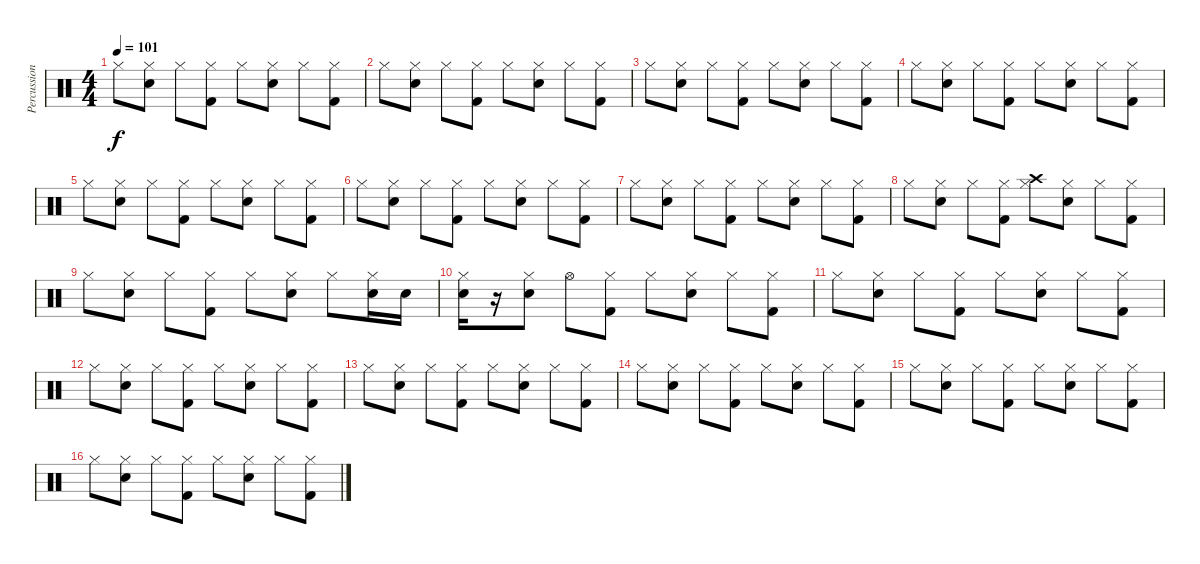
\track ("Percussions" "Percussion") {instrument percussion}
\staff {score}
\articulation defaults
\ts (4 4)
\tempo 101
\clef neutral
\ks c "Hi-Hat (closed)".8{dy f}
("Hi-Hat (closed)" "Electric Snare (hit)").8 "Hi-Hat (closed)".8 ("Hi-Hat (closed)" "Kick (hit) 2").8 "Hi-Hat (closed)".8 ("Hi-Hat (closed)" "Electric Snare (hit)").8 "Hi-Hat (closed)".8 ("Hi-Hat (closed)" "Kick (hit) 2").8 |
"Hi-Hat (closed)".8 ("Hi-Hat (closed)" "Electric Snare (hit)").8 "Hi-Hat (closed)".8 ("Hi-Hat (closed)" "Kick (hit) 2").8 "Hi-Hat (closed)".8 ("Hi-Hat (closed)" "Electric Snare (hit)").8 "Hi-Hat (closed)".8 ("Hi-Hat (closed)" "Kick (hit) 2").8 |
"Hi-Hat (closed)".8 ("Hi-Hat (closed)" "Electric Snare (hit)").8 "Hi-Hat (closed)".8 ("Hi-Hat (closed)" "Kick (hit) 2").8 "Hi-Hat (closed)".8 ("Hi-Hat (closed)" "Electric Snare (hit)").8 "Hi-Hat (closed)".8 ("Hi-Hat (closed)" "Kick (hit) 2").8 |
"Hi-Hat (closed)".8 ("Hi-Hat (closed)" "Electric Snare (hit)").8 "Hi-Hat (closed)".8 ("Hi-Hat (closed)" "Kick (hit) 2").8 "Hi-Hat (closed)".8 ("Hi-Hat (closed)" "Electric Snare (hit)").8 "Hi-Hat (closed)".8 ("Hi-Hat (closed)" "Kick (hit) 2").8 |
"Hi-Hat (closed)".8 ("Hi-Hat (closed)" "Electric Snare (hit)").8 "Hi-Hat (closed)".8 ("Hi-Hat (closed)" "Kick (hit) 2").8 "Hi-Hat (closed)".8 ("Hi-Hat (closed)" "Electric Snare (hit)").8 "Hi-Hat (closed)".8 ("Hi-Hat (closed)" "Kick (hit) 2").8 |
"Hi-Hat (closed)".8 ("Hi-Hat (closed)" "Electric Snare (hit)").8 "Hi-Hat (closed)".8 ("Hi-Hat (closed)" "Kick (hit) 2").8 "Hi-Hat (closed)".8 ("Hi-Hat (closed)" "Electric Snare (hit)").8 "Hi-Hat (closed)".8 ("Hi-Hat (closed)" "Kick (hit) 2").8 |
"Hi-Hat (closed)".8 ("Hi-Hat (closed)" "Electric Snare (hit)").8 "Hi-Hat (closed)".8 ("Hi-Hat (closed)" "Kick (hit) 2").8 "Hi-Hat (closed)".8 ("Hi-Hat (closed)" "Electric Snare (hit)").8 "Hi-Hat (closed)".8 ("Hi-Hat (closed)" "Kick (hit) 2").8 |
"Hi-Hat (closed)".8 ("Hi-Hat (closed)" "Electric Snare (hit)").8 "Hi-Hat (closed)".8 ("Hi-Hat (closed)" "Kick (hit) 2").8 ("Hi-Hat (closed)" "Crash high (hit)").8 ("Hi-Hat (closed)" "Electric Snare (hit)").8 "Hi-Hat (closed)".8 ("Hi-Hat (closed)" "Kick (hit) 2").8 |
"Hi-Hat (closed)".8 ("Hi-Hat (closed)" "Electric Snare (hit)").8 "Hi-Hat (closed)".8 ("Hi-Hat (closed)" "Kick (hit) 2").8 "Hi-Hat (closed)".8 ("Hi-Hat (closed)" "Electric Snare (hit)").8 "Hi-Hat (closed)".8 ("Hi-Hat (closed)" "Electric Snare (hit)").16 "Electric Snare (hit)".16 |
("Hi-Hat (closed)" "Electric Snare (hit)").16 r.16 ("Hi-Hat (closed)" "Electric Snare (hit)").8 "Hi-Hat (open)".8 ("Hi-Hat (closed)" "Kick (hit) 2").8 "Hi-Hat (closed)".8 ("Hi-Hat (closed)" "Electric Snare (hit)").8 "Hi-Hat (closed)".8 ("Hi-Hat (closed)" "Kick (hit) 2").8 |
"Hi-Hat (closed)".8 ("Hi-Hat (closed)" "Electric Snare (hit)").8 "Hi-Hat (closed)".8 ("Hi-Hat (closed)" "Kick (hit) 2").8 "Hi-Hat (closed)".8 ("Hi-Hat (closed)" "Electric Snare (hit)").8 "Hi-Hat (closed)".8 ("Hi-Hat (closed)" "Kick (hit) 2").8 |
"Hi-Hat (closed)".8 ("Hi-Hat (closed)" "Electric Snare (hit)").8 "Hi-Hat (closed)".8 ("Hi-Hat (closed)" "Kick (hit) 2").8 "Hi-Hat (closed)".8 ("Hi-Hat (closed)" "Electric Snare (hit)").8 "Hi-Hat (closed)".8 ("Hi-Hat (closed)" "Kick (hit) 2").8 |
"Hi-Hat (closed)".8 ("Hi-Hat (closed)" "Electric Snare (hit)").8 "Hi-Hat (closed)".8 ("Hi-Hat (closed)" "Kick (hit) 2").8 "Hi-Hat (closed)".8 ("Hi-Hat (closed)" "Electric Snare (hit)").8 "Hi-Hat (closed)".8 ("Hi-Hat (closed)" "Kick (hit) 2").8 |
"Hi-Hat (closed)".8 ("Hi-Hat (closed)" "Electric Snare (hit)").8 "Hi-Hat (closed)".8 ("Hi-Hat (closed)" "Kick (hit) 2").8 "Hi-Hat (closed)".8 ("Hi-Hat (closed)" "Electric Snare (hit)").8 "Hi-Hat (closed)".8 ("Hi-Hat (closed)" "Kick (hit) 2").8 |
"Hi-Hat (closed)".8 ("Hi-Hat (closed)" "Electric Snare (hit)").8 "Hi-Hat (closed)".8 ("Hi-Hat (closed)" "Kick (hit) 2").8 "Hi-Hat (closed)".8 ("Hi-Hat (closed)" "Electric Snare (hit)").8 "Hi-Hat (closed)".8 ("Hi-Hat (closed)" "Kick (hit) 2").8 |
"Hi-Hat (closed)".8 ("Hi-Hat (closed)" "Electric Snare (hit)").8 "Hi-Hat (closed)".8 ("Hi-Hat (closed)" "Kick (hit) 2").8 "Hi-Hat (closed)".8 ("Hi-Hat (closed)" "Electric Snare (hit)").8 "Hi-Hat (closed)".8 ("Hi-Hat (closed)" "Kick (hit) 2").8
